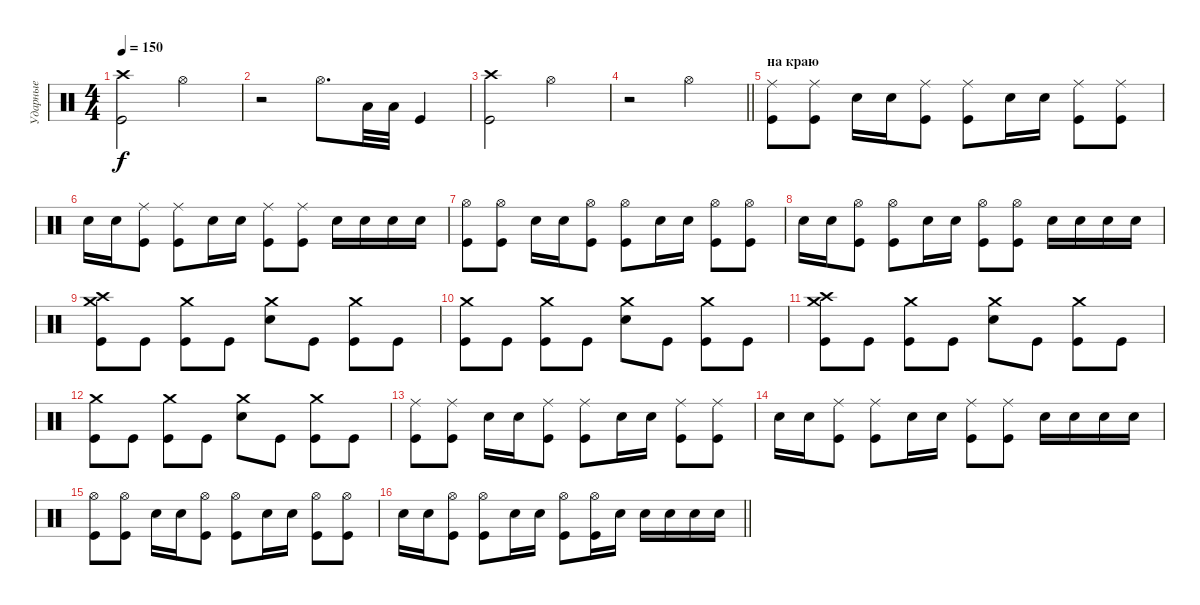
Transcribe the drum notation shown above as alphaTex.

\track ("Ударные" "Ударные") {instrument percussion}
\staff {score}
\articulation defaults
\ts (4 4)
\tempo 150
\clef neutral
\ks c
("Crash high (hit)" "Kick (hit)").2{dy f} "Hi-Hat (open)".2 |
r.2 "Hi-Hat (open)".8{d} "Low Tom (hit)".32 "Low Floor Tom (hit)".32 "Kick (hit)".4 |
("Crash high (hit)" "Kick (hit)").2 "Hi-Hat (open)".2 |
\barLineRight lightlight
r.2 "Hi-Hat (open)".2 |
\section ("" "на краю")
("Ride (middle)" "Kick (hit)").8 ("Ride (middle)" "Kick (hit)").8 "Electric Snare (hit)".16 "Electric Snare (hit)".16 ("Ride (middle)" "Kick (hit)").8 ("Ride (middle)" "Kick (hit)").8 "Electric Snare (hit)".16 "Electric Snare (hit)".16 ("Ride (middle)" "Kick (hit)").8 ("Ride (middle)" "Kick (hit)").8 |
"Electric Snare (hit)".16 "Electric Snare (hit)".16 ("Ride (middle)" "Kick (hit)").8 ("Ride (middle)" "Kick (hit)").8 "Electric Snare (hit)".16 "Electric Snare (hit)".16 ("Ride (middle)" "Kick (hit)").8 ("Ride (middle)" "Kick (hit)").8 "Electric Snare (hit)".16 "Electric Snare (hit)".16 "Electric Snare (hit)".16 "Electric Snare (hit)".16 |
("Hi-Hat (open)" "Kick (hit)").8 ("Hi-Hat (open)" "Kick (hit)").8 "Electric Snare (hit)".16 "Electric Snare (hit)".16 ("Hi-Hat (open)" "Kick (hit)").8 ("Hi-Hat (open)" "Kick (hit)").8 "Electric Snare (hit)".16 "Electric Snare (hit)".16 ("Hi-Hat (open)" "Kick (hit)").8 ("Hi-Hat (open)" "Kick (hit)").8 |
"Electric Snare (hit)".16 "Electric Snare (hit)".16 ("Hi-Hat (open)" "Kick (hit)").8 ("Hi-Hat (open)" "Kick (hit)").8 "Electric Snare (hit)".16 "Electric Snare (hit)".16 ("Hi-Hat (open)" "Kick (hit)").8 ("Hi-Hat (open)" "Kick (hit)").8 "Electric Snare (hit)".16 "Electric Snare (hit)".16 "Electric Snare (hit)".16 "Electric Snare (hit)".16 |
("Crash high (hit)" "Crash medium (hit)" "Kick (hit)").8 "Kick (hit)".8 ("Crash medium (hit)" "Kick (hit)").8 "Kick (hit)".8 ("Crash medium (hit)" "Electric Snare (hit)").8 "Kick (hit)".8 ("Crash medium (hit)" "Kick (hit)").8 "Kick (hit)".8 |
("Crash medium (hit)" "Kick (hit)").8 "Kick (hit)".8 ("Crash medium (hit)" "Kick (hit)").8 "Kick (hit)".8 ("Crash medium (hit)" "Electric Snare (hit)").8 "Kick (hit)".8 ("Crash medium (hit)" "Kick (hit)").8 "Kick (hit)".8 |
("Crash high (hit)" "Crash medium (hit)" "Kick (hit)").8 "Kick (hit)".8 ("Crash medium (hit)" "Kick (hit)").8 "Kick (hit)".8 ("Crash medium (hit)" "Electric Snare (hit)").8 "Kick (hit)".8 ("Crash medium (hit)" "Kick (hit)").8 "Kick (hit)".8 |
("Crash medium (hit)" "Kick (hit)").8 "Kick (hit)".8 ("Crash medium (hit)" "Kick (hit)").8 "Kick (hit)".8 ("Crash medium (hit)" "Electric Snare (hit)").8 "Kick (hit)".8 ("Crash medium (hit)" "Kick (hit)").8 "Kick (hit)".8 |
("Ride (middle)" "Kick (hit)").8 ("Ride (middle)" "Kick (hit)").8 "Electric Snare (hit)".16 "Electric Snare (hit)".16 ("Ride (middle)" "Kick (hit)").8 ("Ride (middle)" "Kick (hit)").8 "Electric Snare (hit)".16 "Electric Snare (hit)".16 ("Ride (middle)" "Kick (hit)").8 ("Ride (middle)" "Kick (hit)").8 |
"Electric Snare (hit)".16 "Electric Snare (hit)".16 ("Ride (middle)" "Kick (hit)").8 ("Ride (middle)" "Kick (hit)").8 "Electric Snare (hit)".16 "Electric Snare (hit)".16 ("Ride (middle)" "Kick (hit)").8 ("Ride (middle)" "Kick (hit)").8 "Electric Snare (hit)".16 "Electric Snare (hit)".16 "Electric Snare (hit)".16 "Electric Snare (hit)".16 |
("Hi-Hat (open)" "Kick (hit)").8 ("Hi-Hat (open)" "Kick (hit)").8 "Electric Snare (hit)".16 "Electric Snare (hit)".16 ("Hi-Hat (open)" "Kick (hit)").8 ("Hi-Hat (open)" "Kick (hit)").8 "Electric Snare (hit)".16 "Electric Snare (hit)".16 ("Hi-Hat (open)" "Kick (hit)").8 ("Hi-Hat (open)" "Kick (hit)").8 |
\barLineRight lightlight "Electric Snare (hit)".16 "Electric Snare (hit)".16
("Hi-Hat (open)" "Kick (hit)").8 ("Hi-Hat (open)" "Kick (hit)").8 "Electric Snare (hit)".16 "Electric Snare (hit)".16 ("Hi-Hat (open)" "Kick (hit)").8 ("Hi-Hat (open)" "Kick (hit)").16 "Electric Snare (hit)".16 "Electric Snare (hit)".16 "Electric Snare (hit)".16 "Electric Snare (hit)".16 "Electric Snare (hit)".16
